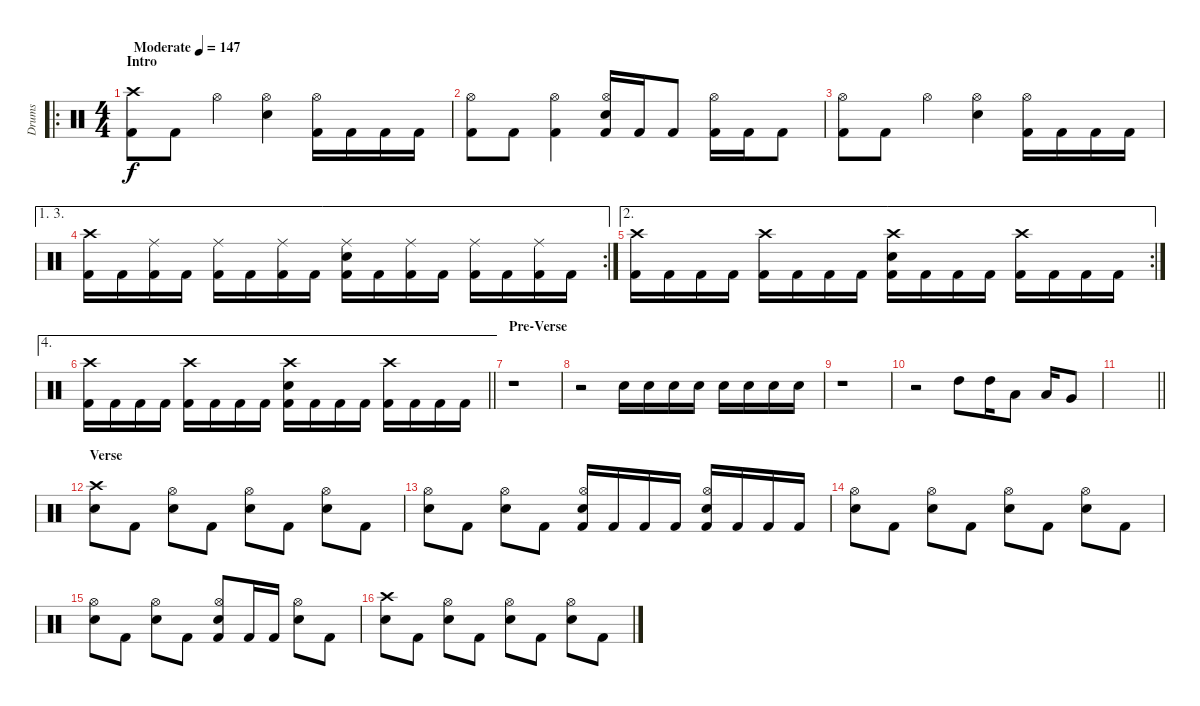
\track ("Drums" "Drums") {instrument percussion}
\staff {score}
\articulation defaults
\ro
\ts (4 4)
\section ("" "Intro")
\tempo (147 "Moderate")
\clef neutral
\ks c
("Crash high (hit)" "Kick (hit) 2").8{dy f} "Kick (hit) 2".8 "Hi-Hat (open)".4 ("Hi-Hat (open)" "Electric Snare (hit)").4 ("Hi-Hat (open)" "Kick (hit) 2").16 "Kick (hit) 2".16 "Kick (hit) 2".16 "Kick (hit) 2".16 |
("Hi-Hat (open)" "Kick (hit) 2").8 "Kick (hit) 2".8 ("Hi-Hat (open)" "Kick (hit) 2").4 ("Hi-Hat (open)" "Electric Snare (hit)" "Kick (hit) 2").16 "Kick (hit) 2".16 "Kick (hit) 2".8 ("Hi-Hat (open)" "Kick (hit) 2").16 "Kick (hit) 2".16 "Kick (hit) 2".8 |
("Hi-Hat (open)" "Kick (hit) 2").8 "Kick (hit) 2".8 "Hi-Hat (open)".4 ("Hi-Hat (open)" "Electric Snare (hit)").4 ("Hi-Hat (open)" "Kick (hit) 2").16 "Kick (hit) 2".16 "Kick (hit) 2".16 "Kick (hit) 2".16 |
\ae (1 3)
\rc 2
("Crash high (hit)" "Kick (hit) 2").16 "Kick (hit) 2".16 ("Ride (middle)" "Kick (hit) 2").16 "Kick (hit) 2".16 ("Ride (middle)" "Kick (hit) 2").16 "Kick (hit) 2".16 ("Ride (middle)" "Kick (hit) 2").16 "Kick (hit) 2".16 ("Ride (middle)" "Electric Snare (hit)" "Kick (hit) 2").16 "Kick (hit) 2".16 ("Ride (middle)" "Kick (hit) 2").16 "Kick (hit) 2".16 ("Ride (middle)" "Kick (hit) 2").16 "Kick (hit) 2".16 ("Ride (middle)" "Kick (hit) 2").16 "Kick (hit) 2".16 |
\ae 2
\rc 2
("Crash high (hit)" "Kick (hit) 2").16 "Kick (hit) 2".16 "Kick (hit) 2".16 "Kick (hit) 2".16 ("Crash high (hit)" "Kick (hit) 2").16 "Kick (hit) 2".16 "Kick (hit) 2".16 "Kick (hit) 2".16 ("Crash high (hit)" "Electric Snare (hit)" "Kick (hit) 2").16 "Kick (hit) 2".16 "Kick (hit) 2".16 "Kick (hit) 2".16 ("Crash high (hit)" "Kick (hit) 2").16 "Kick (hit) 2".16 "Kick (hit) 2".16 "Kick (hit) 2".16 |
\ae 4
\barLineRight lightlight
("Crash high (hit)" "Kick (hit) 2").16 "Kick (hit) 2".16 "Kick (hit) 2".16 "Kick (hit) 2".16 ("Crash high (hit)" "Kick (hit) 2").16 "Kick (hit) 2".16 "Kick (hit) 2".16 "Kick (hit) 2".16 ("Crash high (hit)" "Electric Snare (hit)" "Kick (hit) 2").16 "Kick (hit) 2".16 "Kick (hit) 2".16 "Kick (hit) 2".16 ("Crash high (hit)" "Kick (hit) 2").16 "Kick (hit) 2".16 "Kick (hit) 2".16 "Kick (hit) 2".16 |
\section ("" "Pre-Verse")
r.1 |
r.2 "Electric Snare (hit)".16 "Electric Snare (hit)".16 "Electric Snare (hit)".16 "Electric Snare (hit)".16 "Electric Snare (hit)".16 "Electric Snare (hit)".16 "Electric Snare (hit)".16 "Electric Snare (hit)".16 |
r.1{volume 0} |
r.2{volume 13} "High Tom (hit)".8 "High Tom (hit)".16 "Low Tom (hit)".8 "Low Tom (hit)".16 "Very Low Tom (hit)".8 |
\barLineRight lightlight
|
\section ("" "Verse")
("Crash high (hit)" "Electric Snare (hit)").8 "Kick (hit) 2".8 ("Hi-Hat (open)" "Electric Snare (hit)").8 "Kick (hit) 2".8 ("Hi-Hat (open)" "Electric Snare (hit)").8 "Kick (hit) 2".8 ("Hi-Hat (open)" "Electric Snare (hit)").8 "Kick (hit) 2".8 |
("Hi-Hat (open)" "Electric Snare (hit)").8 "Kick (hit) 2".8 ("Hi-Hat (open)" "Electric Snare (hit)").8 "Kick (hit) 2".8 ("Hi-Hat (open)" "Electric Snare (hit)" "Kick (hit) 2").16 "Kick (hit) 2".16 "Kick (hit) 2".16 "Kick (hit) 2".16 ("Hi-Hat (open)" "Electric Snare (hit)" "Kick (hit) 2").16 "Kick (hit) 2".16 "Kick (hit) 2".16 "Kick (hit) 2".16 |
("Hi-Hat (open)" "Electric Snare (hit)").8 "Kick (hit) 2".8 ("Hi-Hat (open)" "Electric Snare (hit)").8 "Kick (hit) 2".8 ("Hi-Hat (open)" "Electric Snare (hit)").8 "Kick (hit) 2".8 ("Hi-Hat (open)" "Electric Snare (hit)").8 "Kick (hit) 2".8 |
("Hi-Hat (open)" "Electric Snare (hit)").8 "Kick (hit) 2".8 ("Hi-Hat (open)" "Electric Snare (hit)").8 "Kick (hit) 2".8 ("Hi-Hat (open)" "Electric Snare (hit)" "Kick (hit) 2").8 "Kick (hit) 2".16 "Kick (hit) 2".16 ("Hi-Hat (open)" "Electric Snare (hit)").8 "Kick (hit) 2".8 |
("Crash high (hit)" "Electric Snare (hit)").8 "Kick (hit) 2".8 ("Hi-Hat (open)" "Electric Snare (hit)").8 "Kick (hit) 2".8 ("Hi-Hat (open)" "Electric Snare (hit)").8 "Kick (hit) 2".8 ("Hi-Hat (open)" "Electric Snare (hit)").8 "Kick (hit) 2".8
